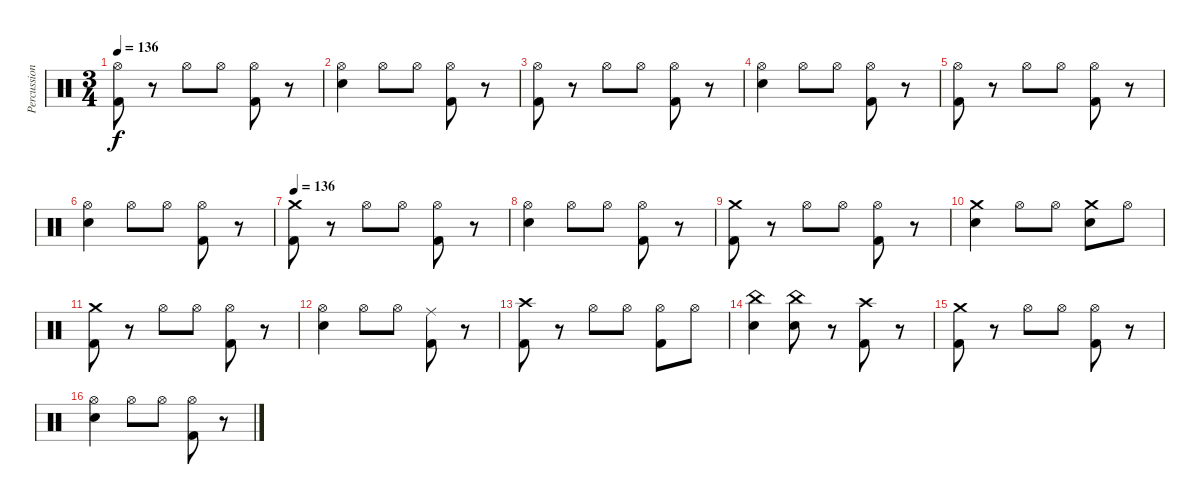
\track ("Percussion" "Percussion") {instrument percussion}
\staff {score}
\articulation defaults
\ts (3 4)
\tempo 136
\clef neutral
\ks c
("Hi-Hat (open)" "Kick (hit) 2").8{dy f} r.8 "Hi-Hat (open)".8 "Hi-Hat (open)".8 ("Hi-Hat (open)" "Kick (hit) 2").8 r.8 |
("Hi-Hat (open)" "Electric Snare (hit)").4 "Hi-Hat (open)".8 "Hi-Hat (open)".8 ("Hi-Hat (open)" "Kick (hit) 2").8 r.8 |
("Hi-Hat (open)" "Kick (hit) 2").8 r.8 "Hi-Hat (open)".8 "Hi-Hat (open)".8 ("Hi-Hat (open)" "Kick (hit) 2").8 r.8 |
("Hi-Hat (open)" "Electric Snare (hit)").4 "Hi-Hat (open)".8 "Hi-Hat (open)".8 ("Hi-Hat (open)" "Kick (hit) 2").8 r.8 |
("Hi-Hat (open)" "Kick (hit) 2").8 r.8 "Hi-Hat (open)".8 "Hi-Hat (open)".8 ("Hi-Hat (open)" "Kick (hit) 2").8 r.8 |
("Hi-Hat (open)" "Electric Snare (hit)").4 "Hi-Hat (open)".8 "Hi-Hat (open)".8 ("Hi-Hat (open)" "Kick (hit) 2").8 r.8 |
\tempo 136
("Crash medium (hit)" "Kick (hit) 2").8 r.8 "Hi-Hat (open)".8 "Hi-Hat (open)".8 ("Hi-Hat (open)" "Kick (hit) 2").8 r.8 |
("Hi-Hat (open)" "Electric Snare (hit)").4 "Hi-Hat (open)".8 "Hi-Hat (open)".8 ("Hi-Hat (open)" "Kick (hit) 2").8 r.8 |
("Crash medium (hit)" "Kick (hit) 2").8 r.8 "Hi-Hat (open)".8 "Hi-Hat (open)".8 ("Hi-Hat (open)" "Kick (hit) 2").8 r.8 |
("Crash medium (hit)" "Electric Snare (hit)").4 "Hi-Hat (open)".8 "Hi-Hat (open)".8 ("Crash medium (hit)" "Electric Snare (hit)").8 "Hi-Hat (open)".8 |
("Crash medium (hit)" "Kick (hit) 2").8 r.8 "Hi-Hat (open)".8 "Hi-Hat (open)".8 ("Hi-Hat (open)" "Kick (hit) 2").8 r.8 |
("Hi-Hat (open)" "Electric Snare (hit)").4 "Hi-Hat (open)".8 "Hi-Hat (open)".8 ("Ride (middle)" "Kick (hit) 2").8 r.8 |
("Crash high (hit)" "Kick (hit) 2").8 r.8 "Hi-Hat (open)".8 "Hi-Hat (open)".8 ("Hi-Hat (open)" "Kick (hit) 2").8 "Hi-Hat (open)".8 |
("China (hit)" "Electric Snare (hit)").4 ("China (hit)" "Electric Snare (hit)").8 r.8 ("Crash high (hit)" "Kick (hit) 2").8 r.8 |
("Crash medium (hit)" "Kick (hit) 2").8 r.8 "Hi-Hat (open)".8 "Hi-Hat (open)".8 ("Hi-Hat (open)" "Kick (hit) 2").8 r.8 |
("Hi-Hat (open)" "Electric Snare (hit)").4 "Hi-Hat (open)".8 "Hi-Hat (open)".8 ("Hi-Hat (open)" "Kick (hit) 2").8 r.8
